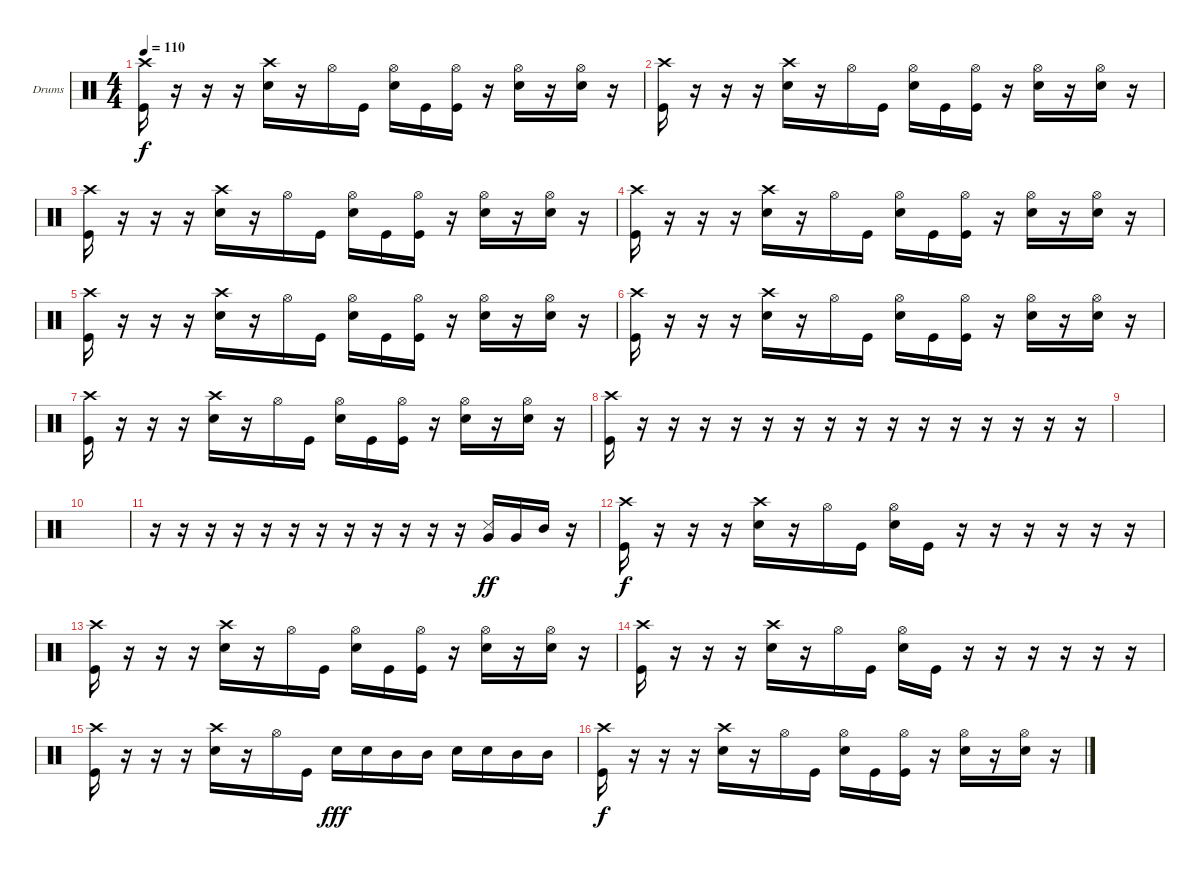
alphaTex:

\defaultSystemsLayout 4
\bracketExtendMode groupsimilarinstruments
\firstSystemTrackNameOrientation horizontal
\otherSystemsTrackNameOrientation horizontal
\track ("Drumkit" "Drums") {instrument percussion}
\staff {score}
\articulation defaults
\ts (4 4)
\tempo 110
\clef neutral
\ks c
("Crash high (hit)" "Kick (hit)").16{dy f} r.16 r.16 r.16 ("Crash high (hit)" "Snare (hit) 2").16 r.16 "Hi-Hat (open)".16 "Kick (hit)".16 ("Hi-Hat (open)" "Snare (hit) 2").16 "Kick (hit)".16 ("Hi-Hat (open)" "Kick (hit)").16 r.16 ("Hi-Hat (open)" "Snare (hit) 2").16 r.16 ("Hi-Hat (open)" "Snare (hit) 2").16 r.16 |
("Crash high (hit)" "Kick (hit)").16 r.16 r.16 r.16 ("Crash high (hit)" "Snare (hit) 2").16 r.16 "Hi-Hat (open)".16 "Kick (hit)".16 ("Hi-Hat (open)" "Snare (hit) 2").16 "Kick (hit)".16 ("Hi-Hat (open)" "Kick (hit)").16 r.16 ("Hi-Hat (open)" "Snare (hit) 2").16 r.16 ("Hi-Hat (open)" "Snare (hit) 2").16 r.16 |
("Crash high (hit)" "Kick (hit)").16 r.16 r.16 r.16 ("Crash high (hit)" "Snare (hit) 2").16 r.16 "Hi-Hat (open)".16 "Kick (hit)".16 ("Hi-Hat (open)" "Snare (hit) 2").16 "Kick (hit)".16 ("Hi-Hat (open)" "Kick (hit)").16 r.16 ("Hi-Hat (open)" "Snare (hit) 2").16 r.16 ("Hi-Hat (open)" "Snare (hit) 2").16 r.16 |
("Crash high (hit)" "Kick (hit)").16 r.16 r.16 r.16 ("Crash high (hit)" "Snare (hit) 2").16 r.16 "Hi-Hat (open)".16 "Kick (hit)".16 ("Hi-Hat (open)" "Snare (hit) 2").16 "Kick (hit)".16 ("Hi-Hat (open)" "Kick (hit)").16 r.16 ("Hi-Hat (open)" "Snare (hit) 2").16 r.16 ("Hi-Hat (open)" "Snare (hit) 2").16 r.16 |
("Crash high (hit)" "Kick (hit)").16 r.16 r.16 r.16 ("Crash high (hit)" "Snare (hit) 2").16 r.16 "Hi-Hat (open)".16 "Kick (hit)".16 ("Hi-Hat (open)" "Snare (hit) 2").16 "Kick (hit)".16 ("Hi-Hat (open)" "Kick (hit)").16 r.16 ("Hi-Hat (open)" "Snare (hit) 2").16 r.16 ("Hi-Hat (open)" "Snare (hit) 2").16 r.16 |
("Crash high (hit)" "Kick (hit)").16 r.16 r.16 r.16 ("Crash high (hit)" "Snare (hit) 2").16 r.16 "Hi-Hat (open)".16 "Kick (hit)".16 ("Hi-Hat (open)" "Snare (hit) 2").16 "Kick (hit)".16 ("Hi-Hat (open)" "Kick (hit)").16 r.16 ("Hi-Hat (open)" "Snare (hit) 2").16 r.16 ("Hi-Hat (open)" "Snare (hit) 2").16 r.16 |
("Crash high (hit)" "Kick (hit)").16 r.16 r.16 r.16 ("Crash high (hit)" "Snare (hit) 2").16 r.16 "Hi-Hat (open)".16 "Kick (hit)".16 ("Hi-Hat (open)" "Snare (hit) 2").16 "Kick (hit)".16 ("Hi-Hat (open)" "Kick (hit)").16 r.16 ("Hi-Hat (open)" "Snare (hit) 2").16 r.16 ("Hi-Hat (open)" "Snare (hit) 2").16 r.16 |
("Crash high (hit)" "Kick (hit)").16 r.16 r.16 r.16 r.16 r.16 r.16 r.16 r.16 r.16 r.16 r.16 r.16 r.16 r.16 r.16 |
|
|
r.16 r.16 r.16 r.16 r.16 r.16 r.16 r.16 r.16 r.16 r.16 r.16 ("Very Low Tom (hit)" "Snare (side stick) 3").16{dy ff} "Very Low Tom (hit)".16 "Mid Tom (hit)".16 r.16 |
("Crash high (hit)" "Kick (hit)").16{dy f} r.16 r.16 r.16 ("Crash high (hit)" "Snare (hit) 2").16 r.16 "Hi-Hat (open)".16 "Kick (hit)".16 ("Hi-Hat (open)" "Snare (hit) 2").16 "Kick (hit)".16 r.16 r.16 r.16 r.16 r.16 r.16 |
("Crash high (hit)" "Kick (hit)").16 r.16 r.16 r.16 ("Crash high (hit)" "Snare (hit) 2").16 r.16 "Hi-Hat (open)".16 "Kick (hit)".16 ("Hi-Hat (open)" "Snare (hit) 2").16 "Kick (hit)".16 ("Hi-Hat (open)" "Kick (hit)").16 r.16 ("Hi-Hat (open)" "Snare (hit) 2").16 r.16 ("Hi-Hat (open)" "Snare (hit) 2").16 r.16 |
("Crash high (hit)" "Kick (hit)").16 r.16 r.16 r.16 ("Crash high (hit)" "Snare (hit) 2").16 r.16 "Hi-Hat (open)".16 "Kick (hit)".16 ("Hi-Hat (open)" "Snare (hit) 2").16 "Kick (hit)".16 r.16 r.16 r.16 r.16 r.16 r.16 |
("Crash high (hit)" "Kick (hit)").16 r.16 r.16 r.16 ("Crash high (hit)" "Snare (hit) 2").16 r.16 "Hi-Hat (open)".16 "Kick (hit)".16 "Snare (hit) 2".16{dy fff} "Snare (hit) 2".16 "Mid Tom (hit)".16 "Mid Tom (hit)".16 "Snare (hit) 2".16 "Snare (hit) 2".16 "Mid Tom (hit)".16 "Mid Tom (hit)".16 |
("Crash high (hit)" "Kick (hit)").16{dy f} r.16 r.16 r.16 ("Crash high (hit)" "Snare (hit) 2").16 r.16 "Hi-Hat (open)".16 "Kick (hit)".16 ("Hi-Hat (open)" "Snare (hit) 2").16 "Kick (hit)".16 ("Hi-Hat (open)" "Kick (hit)").16 r.16 ("Hi-Hat (open)" "Snare (hit) 2").16 r.16 ("Hi-Hat (open)" "Snare (hit) 2").16 r.16
